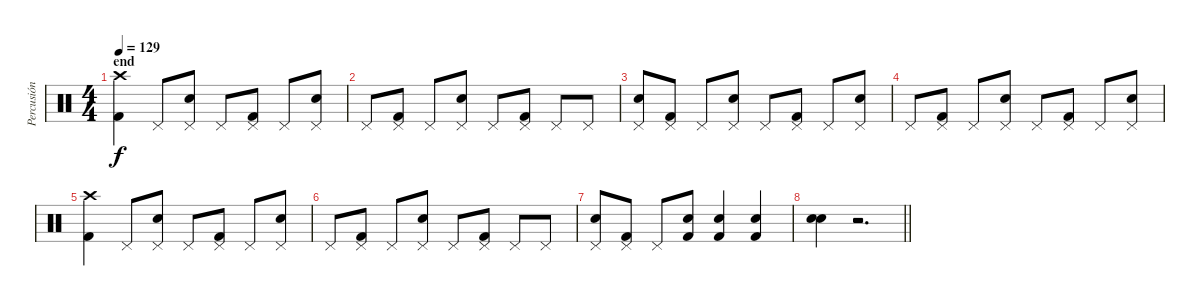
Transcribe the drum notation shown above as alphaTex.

\track ("Percusión" "Percusión") {instrument percussion}
\staff {score}
\articulation defaults
\ts (4 4)
\section ("" "end")
\tempo 129
\clef neutral
\ks c
("Crash high (hit)" "Kick (hit) 2").4{dy f} "Pedal Hi-Hat (hit)".8 ("Electric Snare (hit)" "Pedal Hi-Hat (hit)").8 "Pedal Hi-Hat (hit)".8 ("Pedal Hi-Hat (hit)" "Kick (hit) 2").8 "Pedal Hi-Hat (hit)".8 ("Electric Snare (hit)" "Pedal Hi-Hat (hit)").8 |
"Pedal Hi-Hat (hit)".8 ("Pedal Hi-Hat (hit)" "Kick (hit) 2").8 "Pedal Hi-Hat (hit)".8 ("Electric Snare (hit)" "Pedal Hi-Hat (hit)").8 "Pedal Hi-Hat (hit)".8 ("Pedal Hi-Hat (hit)" "Kick (hit) 2").8 "Pedal Hi-Hat (hit)".8 "Pedal Hi-Hat (hit)".8 |
("Electric Snare (hit)" "Pedal Hi-Hat (hit)").8 ("Pedal Hi-Hat (hit)" "Kick (hit) 2").8 "Pedal Hi-Hat (hit)".8 ("Electric Snare (hit)" "Pedal Hi-Hat (hit)").8 "Pedal Hi-Hat (hit)".8 ("Pedal Hi-Hat (hit)" "Kick (hit) 2").8 "Pedal Hi-Hat (hit)".8 ("Electric Snare (hit)" "Pedal Hi-Hat (hit)").8 |
"Pedal Hi-Hat (hit)".8 ("Pedal Hi-Hat (hit)" "Kick (hit) 2").8 "Pedal Hi-Hat (hit)".8 ("Electric Snare (hit)" "Pedal Hi-Hat (hit)").8 "Pedal Hi-Hat (hit)".8 ("Pedal Hi-Hat (hit)" "Kick (hit) 2").8 "Pedal Hi-Hat (hit)".8 ("Electric Snare (hit)" "Pedal Hi-Hat (hit)").8 |
("Crash high (hit)" "Kick (hit) 2").4 "Pedal Hi-Hat (hit)".8 ("Electric Snare (hit)" "Pedal Hi-Hat (hit)").8 "Pedal Hi-Hat (hit)".8 ("Pedal Hi-Hat (hit)" "Kick (hit) 2").8 "Pedal Hi-Hat (hit)".8 ("Electric Snare (hit)" "Pedal Hi-Hat (hit)").8 |
"Pedal Hi-Hat (hit)".8 ("Pedal Hi-Hat (hit)" "Kick (hit) 2").8 "Pedal Hi-Hat (hit)".8 ("Electric Snare (hit)" "Pedal Hi-Hat (hit)").8 "Pedal Hi-Hat (hit)".8 ("Pedal Hi-Hat (hit)" "Kick (hit) 2").8 "Pedal Hi-Hat (hit)".8 "Pedal Hi-Hat (hit)".8 |
("Electric Snare (hit)" "Pedal Hi-Hat (hit)").8 ("Pedal Hi-Hat (hit)" "Kick (hit) 2").8 "Pedal Hi-Hat (hit)".8 ("Electric Snare (hit)" "Kick (hit) 2").8 ("Electric Snare (hit)" "Kick (hit) 2").4 ("Electric Snare (hit)" "Kick (hit) 2").4 |
\barLineRight lightlight
("Electric Snare (hit)" "Electric Snare (hit)").4 r.2{d}
